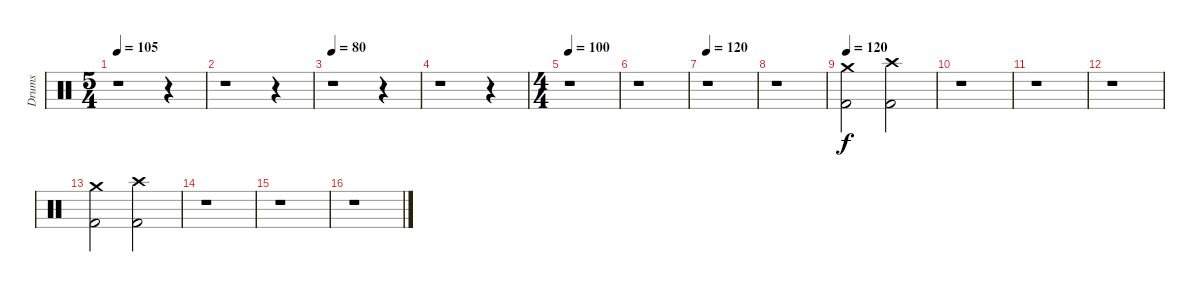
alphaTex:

\track ("Drums" "Drums") {instrument percussion}
\staff {score}
\articulation defaults
\ts (5 4)
\tempo 105
\tempo 60
\tempo 105
\clef neutral
\ks c
r.1{dy f} r.4 |
r.1 r.4 |
\tempo 80
r.1 r.4 |
r.1 r.4 |
\ts (4 4)
\tempo 100
r.1 |
r.1 |
\tempo 120
r.1 |
r.1 |
\tempo 120
("Kick (hit) 2" "Crash medium (hit)").2 ("Kick (hit) 2" "Crash high (hit)").2 |
r.1 |
r.1 |
r.1 |
("Kick (hit) 2" "Crash medium (hit)").2 ("Kick (hit) 2" "Crash high (hit)").2 |
r.1 |
r.1 |
r.1
